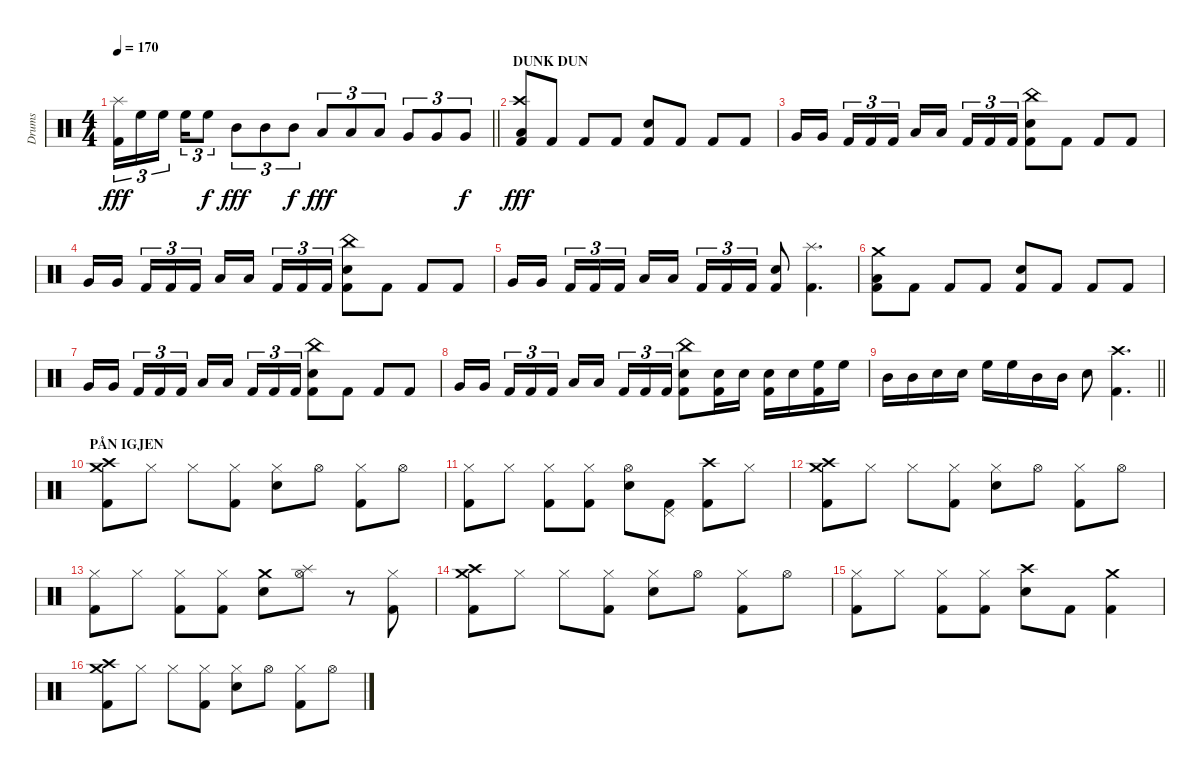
\track ("Drums" "Drums") {instrument percussion}
\staff {score}
\articulation defaults
\ts (4 4)
\tempo 170
\clef neutral
\barLineRight lightlight
\ks c
("Splash (hit)" "Kick (hit) 2").16{tu (3 2) dy fff} "High Floor Tom (hit)".16{tu (3 2)} "High Floor Tom (hit)".16{tu (3 2) beam splitsecondary} "High Floor Tom (hit)".16{tu (3 2)} "High Floor Tom (hit)".8{tu (3 2) dy f} "Mid Tom (hit)".8{tu (3 2) dy fff} "Mid Tom (hit)".8{tu (3 2)} "Mid Tom (hit)".8{tu (3 2) dy f} "Low Tom (hit)".8{tu (3 2) dy fff} "Low Tom (hit)".8{tu (3 2)} "Low Tom (hit)".8{tu (3 2)} "Very Low Tom (hit)".8{tu (3 2)} "Very Low Tom (hit)".8{tu (3 2)} "Very Low Tom (hit)".8{tu (3 2) dy f} |
\section ("" "DUNK DUN")
("Crash high (hit)" "Low Floor Tom (hit)" "Kick (hit) 2").8{dy fff} "Kick (hit) 2".8 "Kick (hit) 2".8 "Kick (hit) 2".8 ("Snare (hit) 2" "Kick (hit) 2").8 "Kick (hit) 2".8 "Kick (hit) 2".8 "Kick (hit) 2".8 |
"Very Low Tom (hit)".16 "Very Low Tom (hit)".16{beam splitsecondary} "Kick (hit) 2".16{tu (3 2)} "Kick (hit) 2".16{tu (3 2)} "Kick (hit) 2".16{tu (3 2)} "Low Floor Tom (hit)".16 "Low Floor Tom (hit)".16{beam splitsecondary} "Kick (hit) 2".16{tu (3 2)} "Kick (hit) 2".16{tu (3 2)} "Kick (hit) 2".16{tu (3 2)} ("China (hit)" "Snare (hit) 2" "Kick (hit) 2").8 "Kick (hit) 2".8 "Kick (hit) 2".8 "Kick (hit) 2".8 |
"Very Low Tom (hit)".16 "Very Low Tom (hit)".16{beam splitsecondary} "Kick (hit) 2".16{tu (3 2)} "Kick (hit) 2".16{tu (3 2)} "Kick (hit) 2".16{tu (3 2)} "Low Floor Tom (hit)".16 "Low Floor Tom (hit)".16{beam splitsecondary} "Kick (hit) 2".16{tu (3 2)} "Kick (hit) 2".16{tu (3 2)} "Kick (hit) 2".16{tu (3 2)} ("China (hit)" "Snare (hit) 2" "Kick (hit) 2").8 "Kick (hit) 2".8 "Kick (hit) 2".8 "Kick (hit) 2".8 |
"Very Low Tom (hit)".16 "Very Low Tom (hit)".16{beam splitsecondary} "Kick (hit) 2".16{tu (3 2)} "Kick (hit) 2".16{tu (3 2)} "Kick (hit) 2".16{tu (3 2)} "Low Floor Tom (hit)".16 "Low Floor Tom (hit)".16{beam splitsecondary} "Kick (hit) 2".16{tu (3 2)} "Kick (hit) 2".16{tu (3 2)} "Kick (hit) 2".16{tu (3 2)} ("Snare (hit) 2" "Kick (hit) 2").8 ("Splash (hit)" "Kick (hit) 2").4{d} |
("Crash medium (hit)" "Low Floor Tom (hit)" "Kick (hit) 2").8 "Kick (hit) 2".8 "Kick (hit) 2".8 "Kick (hit) 2".8 ("Snare (hit) 2" "Kick (hit) 2").8 "Kick (hit) 2".8 "Kick (hit) 2".8 "Kick (hit) 2".8 |
"Very Low Tom (hit)".16 "Very Low Tom (hit)".16{beam splitsecondary} "Kick (hit) 2".16{tu (3 2)} "Kick (hit) 2".16{tu (3 2)} "Kick (hit) 2".16{tu (3 2)} "Low Floor Tom (hit)".16 "Low Floor Tom (hit)".16{beam splitsecondary} "Kick (hit) 2".16{tu (3 2)} "Kick (hit) 2".16{tu (3 2)} "Kick (hit) 2".16{tu (3 2)} ("China (hit)" "Snare (hit) 2" "Kick (hit) 2").8 "Kick (hit) 2".8 "Kick (hit) 2".8 "Kick (hit) 2".8 |
"Very Low Tom (hit)".16 "Very Low Tom (hit)".16{beam splitsecondary} "Kick (hit) 2".16{tu (3 2)} "Kick (hit) 2".16{tu (3 2)} "Kick (hit) 2".16{tu (3 2)} "Low Floor Tom (hit)".16 "Low Floor Tom (hit)".16{beam splitsecondary} "Kick (hit) 2".16{tu (3 2)} "Kick (hit) 2".16{tu (3 2)} "Kick (hit) 2".16{tu (3 2)} ("China (hit)" "Snare (hit) 2" "Kick (hit) 2").8 ("Snare (hit) 2" "Kick (hit) 2").16 "Snare (hit) 2".16 ("Snare (hit) 2" "Kick (hit) 2").16 "Snare (hit) 2".16 ("High Floor Tom (hit)" "Kick (hit) 2").16 "High Floor Tom (hit)".16 |
\barLineRight lightlight "Mid Tom (hit)".16 "Mid Tom (hit)".16 "Snare (hit) 2".16 "Snare (hit) 2".16 "High Floor Tom (hit)".16 "High Floor Tom (hit)".16 "Mid Tom (hit)".16 "Mid Tom (hit)".16 "Snare (hit) 2".8
("Crash high (hit)" "Kick (hit) 2").4{d} |
\section ("" "PÅN IGJEN")
("Crash medium (hit)" "Crash high (hit)" "Kick (hit) 2").8 "Hi-Hat (closed)".8 "Hi-Hat (closed)".8 ("Hi-Hat (closed)" "Kick (hit) 2").8 ("Snare (hit) 2" "Hi-Hat (closed)").8 "Hi-Hat (open)".8 ("Hi-Hat (closed)" "Kick (hit) 2").8 "Hi-Hat (open)".8 |
("Hi-Hat (closed)" "Kick (hit) 2").8 "Hi-Hat (closed)".8 ("Hi-Hat (closed)" "Kick (hit) 2").8 ("Hi-Hat (closed)" "Kick (hit) 2").8 ("Snare (hit) 2" "Hi-Hat (open)").8 ("Pedal Hi-Hat (hit)" "Kick (hit) 2").8 ("Crash high (hit)" "Kick (hit) 2").8 "Hi-Hat (closed)".8 |
("Crash medium (hit)" "Crash high (hit)" "Kick (hit) 2").8 "Hi-Hat (closed)".8 "Hi-Hat (closed)".8 ("Hi-Hat (closed)" "Kick (hit) 2").8 ("Snare (hit) 2" "Hi-Hat (closed)").8 "Hi-Hat (open)".8 ("Hi-Hat (closed)" "Kick (hit) 2").8 "Hi-Hat (open)".8 |
("Hi-Hat (closed)" "Kick (hit) 2").8 "Hi-Hat (closed)".8 ("Hi-Hat (closed)" "Kick (hit) 2").8 ("Hi-Hat (closed)" "Kick (hit) 2").8 ("Crash medium (hit)" "Snare (hit) 2").8 ("Splash (hit)" "Hi-Hat (open)").8 r.8 ("Hi-Hat (closed)" "Kick (hit) 2").8 |
("Crash medium (hit)" "Crash high (hit)" "Kick (hit) 2").8 "Hi-Hat (closed)".8 "Hi-Hat (closed)".8 ("Hi-Hat (closed)" "Kick (hit) 2").8 ("Snare (hit) 2" "Hi-Hat (closed)").8 "Hi-Hat (open)".8 ("Hi-Hat (closed)" "Kick (hit) 2").8 "Hi-Hat (open)".8 |
("Hi-Hat (closed)" "Kick (hit) 2").8 "Hi-Hat (closed)".8 ("Hi-Hat (closed)" "Kick (hit) 2").8 ("Hi-Hat (closed)" "Kick (hit) 2").8 ("Crash high (hit)" "Snare (hit) 2").8 "Kick (hit) 2".8 ("Crash medium (hit)" "Kick (hit) 2").4 |
("Crash medium (hit)" "Crash high (hit)" "Kick (hit) 2").8 "Hi-Hat (closed)".8 "Hi-Hat (closed)".8 ("Hi-Hat (closed)" "Kick (hit) 2").8 ("Snare (hit) 2" "Hi-Hat (closed)").8 "Hi-Hat (open)".8 ("Hi-Hat (closed)" "Kick (hit) 2").8 "Hi-Hat (open)".8
